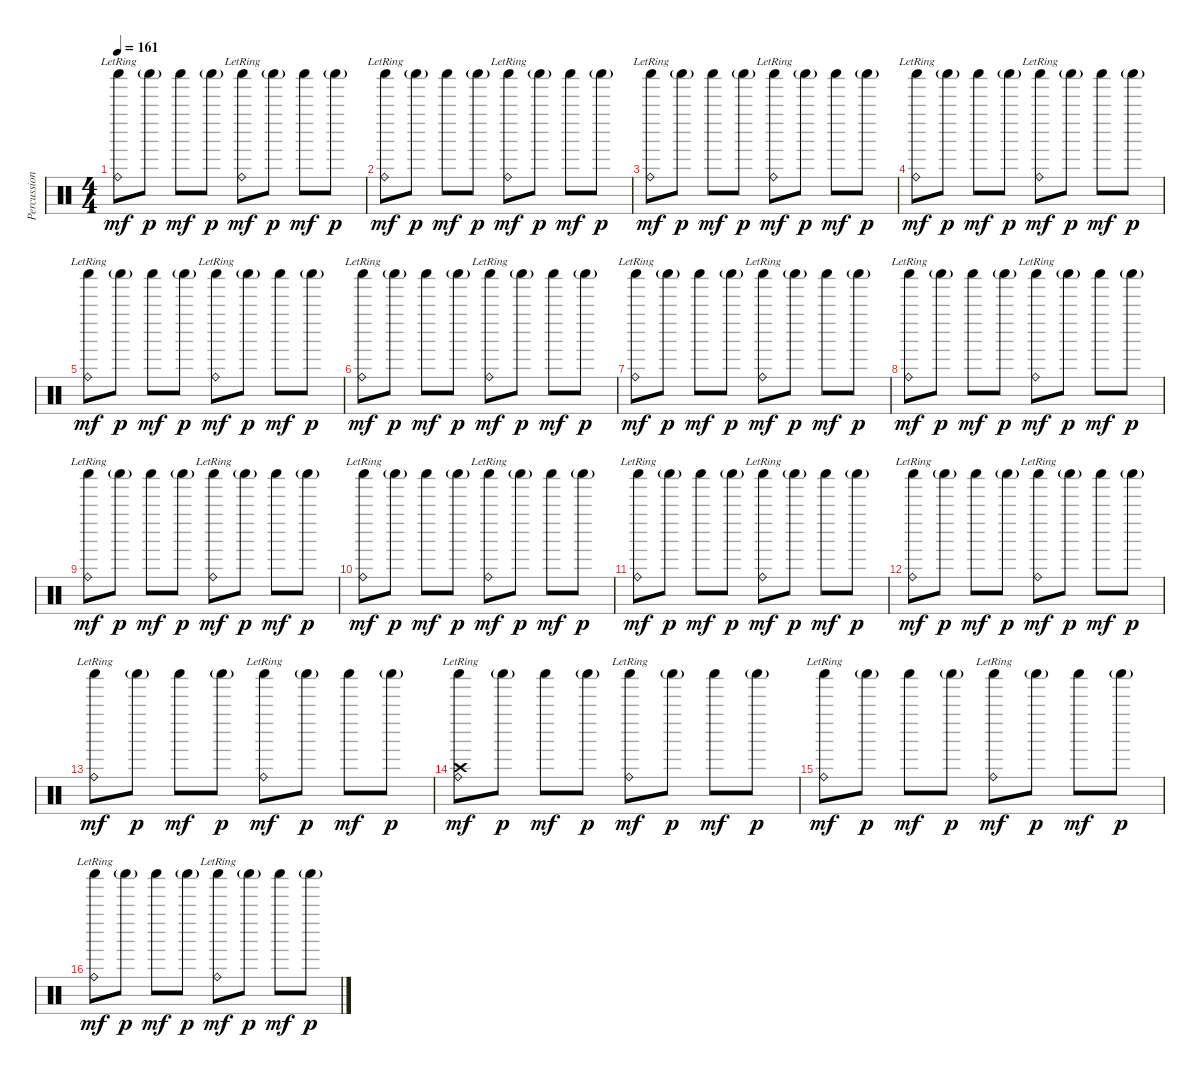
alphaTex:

\track ("Percussion" "Percussion") {instrument percussion}
\staff {score}
\articulation defaults
\ts (4 4)
\tempo 161
\clef neutral
\ks c
("Ride (bell)"{lr} "Shaker (hit)").8{dy mf} "Shaker (hit)"{g}.8{dy p} "Shaker (hit)".8{dy mf} "Shaker (hit)"{g}.8{dy p} ("Ride (bell)"{lr} "Shaker (hit)").8{dy mf} "Shaker (hit)"{g}.8{dy p} "Shaker (hit)".8{dy mf} "Shaker (hit)"{g}.8{dy p} |
("Ride (bell)"{lr} "Shaker (hit)").8{dy mf} "Shaker (hit)"{g}.8{dy p} "Shaker (hit)".8{dy mf} "Shaker (hit)"{g}.8{dy p} ("Ride (bell)"{lr} "Shaker (hit)").8{dy mf} "Shaker (hit)"{g}.8{dy p} "Shaker (hit)".8{dy mf} "Shaker (hit)"{g}.8{dy p} |
("Ride (bell)"{lr} "Shaker (hit)").8{dy mf} "Shaker (hit)"{g}.8{dy p} "Shaker (hit)".8{dy mf} "Shaker (hit)"{g}.8{dy p} ("Ride (bell)"{lr} "Shaker (hit)").8{dy mf} "Shaker (hit)"{g}.8{dy p} "Shaker (hit)".8{dy mf} "Shaker (hit)"{g}.8{dy p} |
("Ride (bell)"{lr} "Shaker (hit)").8{dy mf} "Shaker (hit)"{g}.8{dy p} "Shaker (hit)".8{dy mf} "Shaker (hit)"{g}.8{dy p} ("Ride (bell)"{lr} "Shaker (hit)").8{dy mf} "Shaker (hit)"{g}.8{dy p} "Shaker (hit)".8{dy mf} "Shaker (hit)"{g}.8{dy p} |
("Ride (bell)"{lr} "Shaker (hit)").8{dy mf} "Shaker (hit)"{g}.8{dy p} "Shaker (hit)".8{dy mf} "Shaker (hit)"{g}.8{dy p} ("Ride (bell)"{lr} "Shaker (hit)").8{dy mf} "Shaker (hit)"{g}.8{dy p} "Shaker (hit)".8{dy mf} "Shaker (hit)"{g}.8{dy p} |
("Ride (bell)"{lr} "Shaker (hit)").8{dy mf} "Shaker (hit)"{g}.8{dy p} "Shaker (hit)".8{dy mf} "Shaker (hit)"{g}.8{dy p} ("Ride (bell)"{lr} "Shaker (hit)").8{dy mf} "Shaker (hit)"{g}.8{dy p} "Shaker (hit)".8{dy mf} "Shaker (hit)"{g}.8{dy p} |
("Ride (bell)"{lr} "Shaker (hit)").8{dy mf} "Shaker (hit)"{g}.8{dy p} "Shaker (hit)".8{dy mf} "Shaker (hit)"{g}.8{dy p} ("Ride (bell)"{lr} "Shaker (hit)").8{dy mf} "Shaker (hit)"{g}.8{dy p} "Shaker (hit)".8{dy mf} "Shaker (hit)"{g}.8{dy p} |
("Ride (bell)"{lr} "Shaker (hit)").8{dy mf} "Shaker (hit)"{g}.8{dy p} "Shaker (hit)".8{dy mf} "Shaker (hit)"{g}.8{dy p} ("Ride (bell)"{lr} "Shaker (hit)").8{dy mf} "Shaker (hit)"{g}.8{dy p} "Shaker (hit)".8{dy mf} "Shaker (hit)"{g}.8{dy p} |
("Ride (bell)"{lr} "Shaker (hit)").8{dy mf} "Shaker (hit)"{g}.8{dy p} "Shaker (hit)".8{dy mf} "Shaker (hit)"{g}.8{dy p} ("Ride (bell)"{lr} "Shaker (hit)").8{dy mf} "Shaker (hit)"{g}.8{dy p} "Shaker (hit)".8{dy mf} "Shaker (hit)"{g}.8{dy p} |
("Ride (bell)"{lr} "Shaker (hit)").8{dy mf} "Shaker (hit)"{g}.8{dy p} "Shaker (hit)".8{dy mf} "Shaker (hit)"{g}.8{dy p} ("Ride (bell)"{lr} "Shaker (hit)").8{dy mf} "Shaker (hit)"{g}.8{dy p} "Shaker (hit)".8{dy mf} "Shaker (hit)"{g}.8{dy p} |
("Ride (bell)"{lr} "Shaker (hit)").8{dy mf} "Shaker (hit)"{g}.8{dy p} "Shaker (hit)".8{dy mf} "Shaker (hit)"{g}.8{dy p} ("Ride (bell)"{lr} "Shaker (hit)").8{dy mf} "Shaker (hit)"{g}.8{dy p} "Shaker (hit)".8{dy mf} "Shaker (hit)"{g}.8{dy p} |
("Ride (bell)"{lr} "Shaker (hit)").8{dy mf} "Shaker (hit)"{g}.8{dy p} "Shaker (hit)".8{dy mf} "Shaker (hit)"{g}.8{dy p} ("Ride (bell)"{lr} "Shaker (hit)").8{dy mf} "Shaker (hit)"{g}.8{dy p} "Shaker (hit)".8{dy mf} "Shaker (hit)"{g}.8{dy p} |
("Ride (bell)"{lr} "Shaker (hit)").8{dy mf} "Shaker (hit)"{g}.8{dy p} "Shaker (hit)".8{dy mf} "Shaker (hit)"{g}.8{dy p} ("Ride (bell)"{lr} "Shaker (hit)").8{dy mf} "Shaker (hit)"{g}.8{dy p} "Shaker (hit)".8{dy mf} "Shaker (hit)"{g}.8{dy p} |
("Ride (bell)"{lr} "Shaker (hit)" "Crash high (hit)").8{dy mf} "Shaker (hit)"{g}.8{dy p} "Shaker (hit)".8{dy mf} "Shaker (hit)"{g}.8{dy p} ("Ride (bell)"{lr} "Shaker (hit)").8{dy mf} "Shaker (hit)"{g}.8{dy p} "Shaker (hit)".8{dy mf} "Shaker (hit)"{g}.8{dy p} |
("Ride (bell)"{lr} "Shaker (hit)").8{dy mf} "Shaker (hit)"{g}.8{dy p} "Shaker (hit)".8{dy mf} "Shaker (hit)"{g}.8{dy p} ("Ride (bell)"{lr} "Shaker (hit)").8{dy mf} "Shaker (hit)"{g}.8{dy p} "Shaker (hit)".8{dy mf} "Shaker (hit)"{g}.8{dy p} |
("Ride (bell)"{lr} "Shaker (hit)").8{dy mf} "Shaker (hit)"{g}.8{dy p} "Shaker (hit)".8{dy mf} "Shaker (hit)"{g}.8{dy p} ("Ride (bell)"{lr} "Shaker (hit)").8{dy mf} "Shaker (hit)"{g}.8{dy p} "Shaker (hit)".8{dy mf} "Shaker (hit)"{g}.8{dy p}
